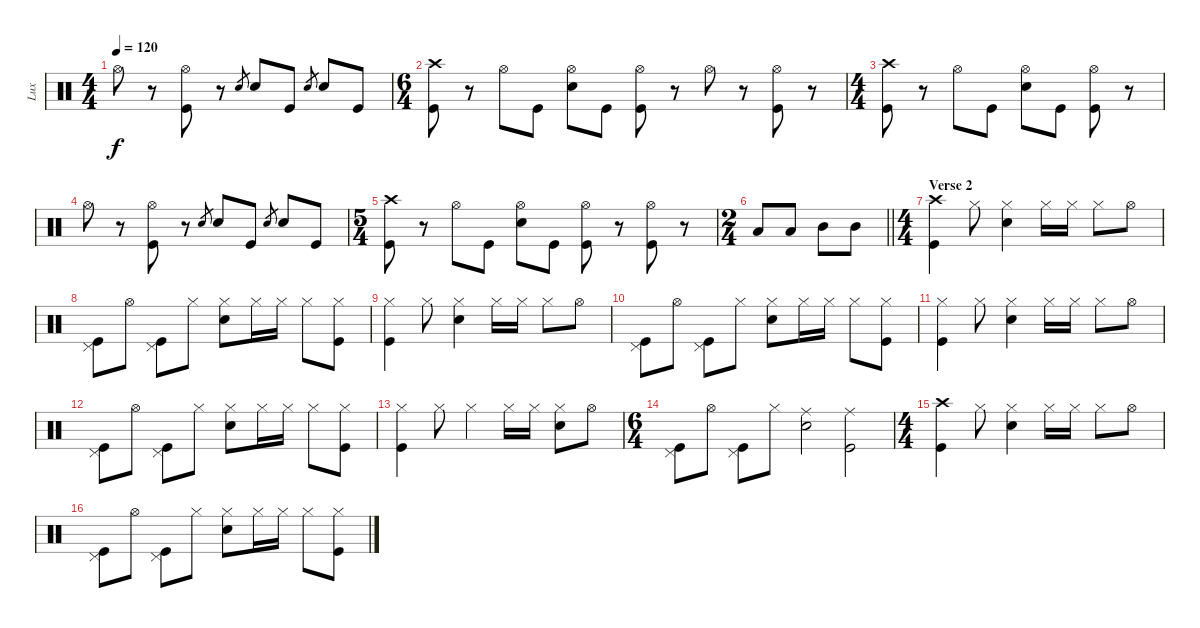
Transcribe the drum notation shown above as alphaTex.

\track ("Lux" "Lux") {instrument percussion}
\staff {score}
\articulation defaults
\ts (4 4)
\tempo 120
\clef neutral
\ks c "Hi-Hat (open)".8{dy f}
r.8 ("Hi-Hat (open)" "Kick (hit)").8 r.8 "Snare (hit) 2".8{gr} "Snare (hit) 2".8 "Kick (hit)".8 "Snare (hit) 2".8{gr} "Snare (hit) 2".8 "Kick (hit)".8 |
\ts (6 4)
("Crash high (hit)" "Kick (hit)").8 r.8 "Hi-Hat (open)".8 "Kick (hit)".8 ("Hi-Hat (open)" "Snare (hit) 2").8 "Kick (hit)".8 ("Hi-Hat (open)" "Kick (hit)").8 r.8 "Hi-Hat (open)".8 r.8 ("Hi-Hat (open)" "Kick (hit)").8 r.8 |
\ts (4 4)
("Crash high (hit)" "Kick (hit)").8 r.8 "Hi-Hat (open)".8 "Kick (hit)".8 ("Hi-Hat (open)" "Snare (hit) 2").8 "Kick (hit)".8 ("Hi-Hat (open)" "Kick (hit)").8 r.8 |
"Hi-Hat (open)".8 r.8 ("Hi-Hat (open)" "Kick (hit)").8 r.8 "Snare (hit) 2".8{gr} "Snare (hit) 2".8 "Kick (hit)".8 "Snare (hit) 2".8{gr} "Snare (hit) 2".8 "Kick (hit)".8 |
\ts (5 4)
("Crash high (hit)" "Kick (hit)").8 r.8 "Hi-Hat (open)".8 "Kick (hit)".8 ("Hi-Hat (open)" "Snare (hit) 2").8 "Kick (hit)".8 ("Hi-Hat (open)" "Kick (hit)").8 r.8 ("Hi-Hat (open)" "Kick (hit)").8 r.8 |
\ts (2 4)
\barLineRight lightlight "Low Tom (hit)".8 "Low Tom (hit)".8 "Mid Tom (hit)".8 "Mid Tom (hit)".8
|
\ts (4 4)
\section ("" "Verse 2")
("Crash high (hit)" "Kick (hit)").4 "Hi-Hat (closed)".8 ("Hi-Hat (closed)" "Snare (hit) 2").4 "Hi-Hat (closed)".16 "Hi-Hat (closed)".16 "Hi-Hat (closed)".8 "Hi-Hat (open)".8 |
("Kick (hit)" "Pedal Hi-Hat (hit)").8 "Hi-Hat (open)".8 ("Kick (hit)" "Pedal Hi-Hat (hit)").8 "Hi-Hat (closed)".8 ("Hi-Hat (closed)" "Snare (hit) 2").8 "Hi-Hat (closed)".16 "Hi-Hat (closed)".16 "Hi-Hat (closed)".8 ("Hi-Hat (closed)" "Kick (hit)").8 |
("Hi-Hat (closed)" "Kick (hit)").4 "Hi-Hat (closed)".8 ("Hi-Hat (closed)" "Snare (hit) 2").4 "Hi-Hat (closed)".16 "Hi-Hat (closed)".16 "Hi-Hat (closed)".8 "Hi-Hat (open)".8 |
("Kick (hit)" "Pedal Hi-Hat (hit)").8 "Hi-Hat (open)".8 ("Kick (hit)" "Pedal Hi-Hat (hit)").8 "Hi-Hat (closed)".8 ("Hi-Hat (closed)" "Snare (hit) 2").8 "Hi-Hat (closed)".16 "Hi-Hat (closed)".16 "Hi-Hat (closed)".8 ("Hi-Hat (closed)" "Kick (hit)").8 |
("Hi-Hat (closed)" "Kick (hit)").4 "Hi-Hat (closed)".8 ("Hi-Hat (closed)" "Snare (hit) 2").4 "Hi-Hat (closed)".16 "Hi-Hat (closed)".16 "Hi-Hat (closed)".8 "Hi-Hat (open)".8 |
("Kick (hit)" "Pedal Hi-Hat (hit)").8 "Hi-Hat (open)".8 ("Kick (hit)" "Pedal Hi-Hat (hit)").8 "Hi-Hat (closed)".8 ("Hi-Hat (closed)" "Snare (hit) 2").8 "Hi-Hat (closed)".16 "Hi-Hat (closed)".16 "Hi-Hat (closed)".8 ("Hi-Hat (closed)" "Kick (hit)").8 |
("Hi-Hat (closed)" "Kick (hit)").4 "Hi-Hat (closed)".8 "Hi-Hat (closed)".4 "Hi-Hat (closed)".16 "Hi-Hat (closed)".16 ("Hi-Hat (closed)" "Snare (hit) 2").8 "Hi-Hat (open)".8 |
\ts (6 4)
("Kick (hit)" "Pedal Hi-Hat (hit)").8 "Hi-Hat (open)".8 ("Kick (hit)" "Pedal Hi-Hat (hit)").8 "Hi-Hat (closed)".8 ("Ride (middle)" "Snare (hit) 2").2 ("Ride (middle)" "Kick (hit)").2 |
\ts (4 4)
("Crash high (hit)" "Kick (hit)").4 "Hi-Hat (closed)".8 ("Hi-Hat (closed)" "Snare (hit) 2").4 "Hi-Hat (closed)".16 "Hi-Hat (closed)".16 "Hi-Hat (closed)".8 "Hi-Hat (open)".8 |
("Kick (hit)" "Pedal Hi-Hat (hit)").8 "Hi-Hat (open)".8 ("Kick (hit)" "Pedal Hi-Hat (hit)").8 "Hi-Hat (closed)".8 ("Hi-Hat (closed)" "Snare (hit) 2").8 "Hi-Hat (closed)".16 "Hi-Hat (closed)".16 "Hi-Hat (closed)".8 ("Hi-Hat (closed)" "Kick (hit)").8
